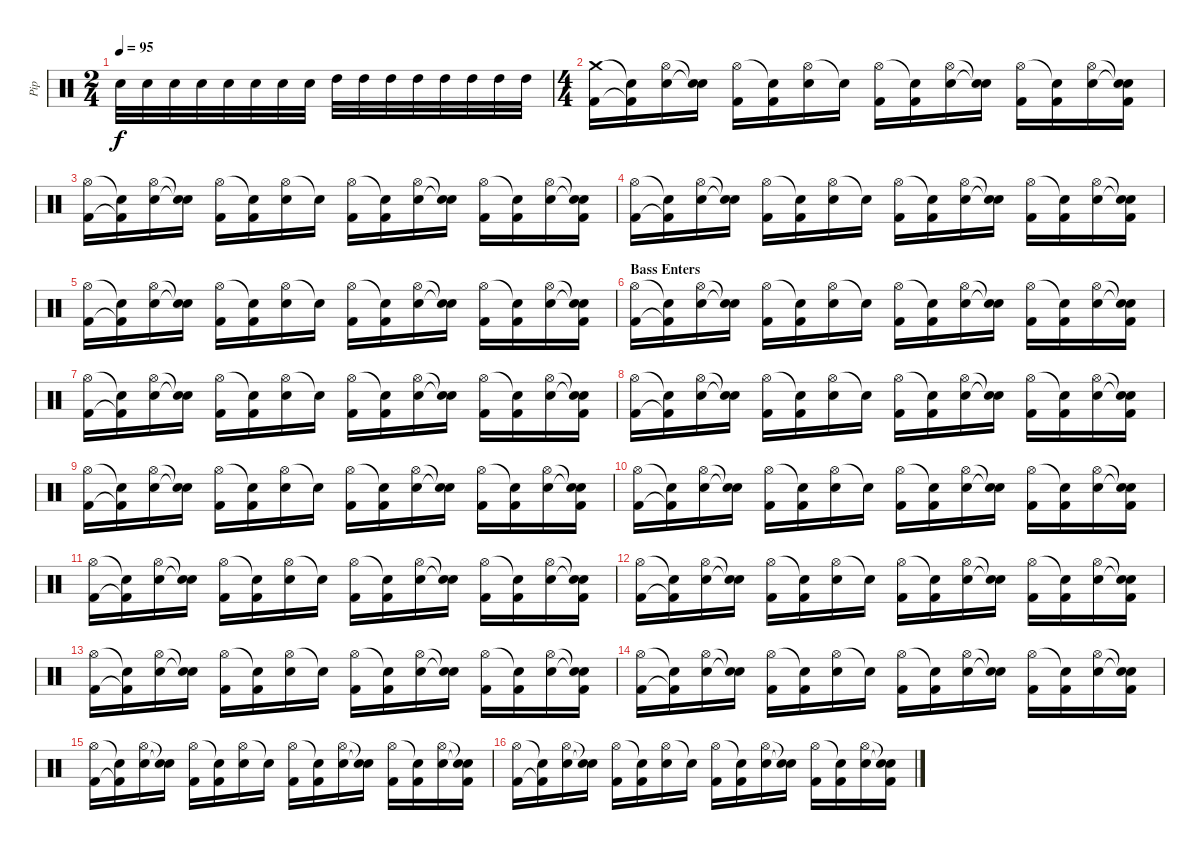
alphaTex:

\track ("Pip" "Pip") {instrument percussion}
\staff {score}
\articulation defaults
\ts (2 4)
\tempo 95
\clef neutral
\ks c "Electric Snare (hit)".32{dy f} "Electric Snare (hit)".32 "Electric Snare (hit)".32 "Electric Snare (hit)".32 "Electric Snare (hit)".32 "Electric Snare (hit)".32 "Electric Snare (hit)".32 "Electric Snare (hit)".32 "High Tom (hit)".32 "High Tom (hit)".32 "High Tom (hit)".32 "High Tom (hit)".32 "High Tom (hit)".32 "High Tom (hit)".32 "High Tom (hit)".32 "High Tom (hit)".32
|
\ts (4 4)
("Crash medium (hit)" "Kick (hit) 2").16 ("Snare (hit)"{t} "Kick (hit) 2"{t}).16 ("Hi-Hat (open)" "Electric Snare (hit)").16 ("Snare (hit)"{t} "Snare (hit)"{t}).16 ("Hi-Hat (open)" "Kick (hit) 2").16 ("Snare (hit)"{t} "Kick (hit) 2").16 ("Hi-Hat (open)" "Electric Snare (hit)").16 "Snare (hit)"{t}.16 ("Hi-Hat (open)" "Kick (hit) 2").16 ("Snare (hit)"{t} "Kick (hit) 2").16 ("Hi-Hat (open)" "Electric Snare (hit)").16 ("Snare (hit)"{t} "Snare (hit)"{t}).16 ("Hi-Hat (open)" "Kick (hit) 2").16 ("Snare (hit)"{t} "Kick (hit) 2").16 ("Hi-Hat (open)" "Electric Snare (hit)").16 ("Snare (hit)"{t} "Snare (hit)"{t} "Kick (hit) 2").16 |
("Hi-Hat (open)" "Kick (hit) 2").16 ("Snare (hit)"{t} "Kick (hit) 2"{t}).16 ("Hi-Hat (open)" "Electric Snare (hit)").16 ("Snare (hit)"{t} "Snare (hit)"{t}).16 ("Hi-Hat (open)" "Kick (hit) 2").16 ("Snare (hit)"{t} "Kick (hit) 2").16 ("Hi-Hat (open)" "Electric Snare (hit)").16 "Snare (hit)"{t}.16 ("Hi-Hat (open)" "Kick (hit) 2").16 ("Snare (hit)"{t} "Kick (hit) 2").16 ("Hi-Hat (open)" "Electric Snare (hit)").16 ("Snare (hit)"{t} "Snare (hit)"{t}).16 ("Hi-Hat (open)" "Kick (hit) 2").16 ("Snare (hit)"{t} "Kick (hit) 2").16 ("Hi-Hat (open)" "Electric Snare (hit)").16 ("Snare (hit)"{t} "Snare (hit)"{t} "Kick (hit) 2").16 |
("Hi-Hat (open)" "Kick (hit) 2").16 ("Snare (hit)"{t} "Kick (hit) 2"{t}).16 ("Hi-Hat (open)" "Electric Snare (hit)").16 ("Snare (hit)"{t} "Snare (hit)"{t}).16 ("Hi-Hat (open)" "Kick (hit) 2").16 ("Snare (hit)"{t} "Kick (hit) 2").16 ("Hi-Hat (open)" "Electric Snare (hit)").16 "Snare (hit)"{t}.16 ("Hi-Hat (open)" "Kick (hit) 2").16 ("Snare (hit)"{t} "Kick (hit) 2").16 ("Hi-Hat (open)" "Electric Snare (hit)").16 ("Snare (hit)"{t} "Snare (hit)"{t}).16 ("Hi-Hat (open)" "Kick (hit) 2").16 ("Snare (hit)"{t} "Kick (hit) 2").16 ("Hi-Hat (open)" "Electric Snare (hit)").16 ("Snare (hit)"{t} "Snare (hit)"{t} "Kick (hit) 2").16 |
("Hi-Hat (open)" "Kick (hit) 2").16 ("Snare (hit)"{t} "Kick (hit) 2"{t}).16 ("Hi-Hat (open)" "Electric Snare (hit)").16 ("Snare (hit)"{t} "Snare (hit)"{t}).16 ("Hi-Hat (open)" "Kick (hit) 2").16 ("Snare (hit)"{t} "Kick (hit) 2").16 ("Hi-Hat (open)" "Electric Snare (hit)").16 "Snare (hit)"{t}.16 ("Hi-Hat (open)" "Kick (hit) 2").16 ("Snare (hit)"{t} "Kick (hit) 2").16 ("Hi-Hat (open)" "Electric Snare (hit)").16 ("Snare (hit)"{t} "Snare (hit)"{t}).16 ("Hi-Hat (open)" "Kick (hit) 2").16 ("Snare (hit)"{t} "Kick (hit) 2").16 ("Hi-Hat (open)" "Electric Snare (hit)").16 ("Snare (hit)"{t} "Snare (hit)"{t} "Kick (hit) 2").16 |
\section ("" "Bass Enters")
("Hi-Hat (open)" "Kick (hit) 2").16 ("Snare (hit)"{t} "Kick (hit) 2"{t}).16 ("Hi-Hat (open)" "Electric Snare (hit)").16 ("Snare (hit)"{t} "Snare (hit)"{t}).16 ("Hi-Hat (open)" "Kick (hit) 2").16 ("Snare (hit)"{t} "Kick (hit) 2").16 ("Hi-Hat (open)" "Electric Snare (hit)").16 "Snare (hit)"{t}.16 ("Hi-Hat (open)" "Kick (hit) 2").16 ("Snare (hit)"{t} "Kick (hit) 2").16 ("Hi-Hat (open)" "Electric Snare (hit)").16 ("Snare (hit)"{t} "Snare (hit)"{t}).16 ("Hi-Hat (open)" "Kick (hit) 2").16 ("Snare (hit)"{t} "Kick (hit) 2").16 ("Hi-Hat (open)" "Electric Snare (hit)").16 ("Snare (hit)"{t} "Snare (hit)"{t} "Kick (hit) 2").16 |
("Hi-Hat (open)" "Kick (hit) 2").16 ("Snare (hit)"{t} "Kick (hit) 2"{t}).16 ("Hi-Hat (open)" "Electric Snare (hit)").16 ("Snare (hit)"{t} "Snare (hit)"{t}).16 ("Hi-Hat (open)" "Kick (hit) 2").16 ("Snare (hit)"{t} "Kick (hit) 2").16 ("Hi-Hat (open)" "Electric Snare (hit)").16 "Snare (hit)"{t}.16 ("Hi-Hat (open)" "Kick (hit) 2").16 ("Snare (hit)"{t} "Kick (hit) 2").16 ("Hi-Hat (open)" "Electric Snare (hit)").16 ("Snare (hit)"{t} "Snare (hit)"{t}).16 ("Hi-Hat (open)" "Kick (hit) 2").16 ("Snare (hit)"{t} "Kick (hit) 2").16 ("Hi-Hat (open)" "Electric Snare (hit)").16 ("Snare (hit)"{t} "Snare (hit)"{t} "Kick (hit) 2").16 |
("Hi-Hat (open)" "Kick (hit) 2").16 ("Snare (hit)"{t} "Kick (hit) 2"{t}).16 ("Hi-Hat (open)" "Electric Snare (hit)").16 ("Snare (hit)"{t} "Snare (hit)"{t}).16 ("Hi-Hat (open)" "Kick (hit) 2").16 ("Snare (hit)"{t} "Kick (hit) 2").16 ("Hi-Hat (open)" "Electric Snare (hit)").16 "Snare (hit)"{t}.16 ("Hi-Hat (open)" "Kick (hit) 2").16 ("Snare (hit)"{t} "Kick (hit) 2").16 ("Hi-Hat (open)" "Electric Snare (hit)").16 ("Snare (hit)"{t} "Snare (hit)"{t}).16 ("Hi-Hat (open)" "Kick (hit) 2").16 ("Snare (hit)"{t} "Kick (hit) 2").16 ("Hi-Hat (open)" "Electric Snare (hit)").16 ("Snare (hit)"{t} "Snare (hit)"{t} "Kick (hit) 2").16 |
("Hi-Hat (open)" "Kick (hit) 2").16 ("Snare (hit)"{t} "Kick (hit) 2"{t}).16 ("Hi-Hat (open)" "Electric Snare (hit)").16 ("Snare (hit)"{t} "Snare (hit)"{t}).16 ("Hi-Hat (open)" "Kick (hit) 2").16 ("Snare (hit)"{t} "Kick (hit) 2").16 ("Hi-Hat (open)" "Electric Snare (hit)").16 "Snare (hit)"{t}.16 ("Hi-Hat (open)" "Kick (hit) 2").16 ("Snare (hit)"{t} "Kick (hit) 2").16 ("Hi-Hat (open)" "Electric Snare (hit)").16 ("Snare (hit)"{t} "Snare (hit)"{t}).16 ("Hi-Hat (open)" "Kick (hit) 2").16 ("Snare (hit)"{t} "Kick (hit) 2").16 ("Hi-Hat (open)" "Electric Snare (hit)").16 ("Snare (hit)"{t} "Snare (hit)"{t} "Kick (hit) 2").16 |
("Hi-Hat (open)" "Kick (hit) 2").16 ("Snare (hit)"{t} "Kick (hit) 2"{t}).16 ("Hi-Hat (open)" "Electric Snare (hit)").16 ("Snare (hit)"{t} "Snare (hit)"{t}).16 ("Hi-Hat (open)" "Kick (hit) 2").16 ("Snare (hit)"{t} "Kick (hit) 2").16 ("Hi-Hat (open)" "Electric Snare (hit)").16 "Snare (hit)"{t}.16 ("Hi-Hat (open)" "Kick (hit) 2").16 ("Snare (hit)"{t} "Kick (hit) 2").16 ("Hi-Hat (open)" "Electric Snare (hit)").16 ("Snare (hit)"{t} "Snare (hit)"{t}).16 ("Hi-Hat (open)" "Kick (hit) 2").16 ("Snare (hit)"{t} "Kick (hit) 2").16 ("Hi-Hat (open)" "Electric Snare (hit)").16 ("Snare (hit)"{t} "Snare (hit)"{t} "Kick (hit) 2").16 |
("Hi-Hat (open)" "Kick (hit) 2").16 ("Snare (hit)"{t} "Kick (hit) 2"{t}).16 ("Hi-Hat (open)" "Electric Snare (hit)").16 ("Snare (hit)"{t} "Snare (hit)"{t}).16 ("Hi-Hat (open)" "Kick (hit) 2").16 ("Snare (hit)"{t} "Kick (hit) 2").16 ("Hi-Hat (open)" "Electric Snare (hit)").16 "Snare (hit)"{t}.16 ("Hi-Hat (open)" "Kick (hit) 2").16 ("Snare (hit)"{t} "Kick (hit) 2").16 ("Hi-Hat (open)" "Electric Snare (hit)").16 ("Snare (hit)"{t} "Snare (hit)"{t}).16 ("Hi-Hat (open)" "Kick (hit) 2").16 ("Snare (hit)"{t} "Kick (hit) 2").16 ("Hi-Hat (open)" "Electric Snare (hit)").16 ("Snare (hit)"{t} "Snare (hit)"{t} "Kick (hit) 2").16 |
("Hi-Hat (open)" "Kick (hit) 2").16 ("Snare (hit)"{t} "Kick (hit) 2"{t}).16 ("Hi-Hat (open)" "Electric Snare (hit)").16 ("Snare (hit)"{t} "Snare (hit)"{t}).16 ("Hi-Hat (open)" "Kick (hit) 2").16 ("Snare (hit)"{t} "Kick (hit) 2").16 ("Hi-Hat (open)" "Electric Snare (hit)").16 "Snare (hit)"{t}.16 ("Hi-Hat (open)" "Kick (hit) 2").16 ("Snare (hit)"{t} "Kick (hit) 2").16 ("Hi-Hat (open)" "Electric Snare (hit)").16 ("Snare (hit)"{t} "Snare (hit)"{t}).16 ("Hi-Hat (open)" "Kick (hit) 2").16 ("Snare (hit)"{t} "Kick (hit) 2").16 ("Hi-Hat (open)" "Electric Snare (hit)").16 ("Snare (hit)"{t} "Snare (hit)"{t} "Kick (hit) 2").16 |
("Hi-Hat (open)" "Kick (hit) 2").16 ("Snare (hit)"{t} "Kick (hit) 2"{t}).16 ("Hi-Hat (open)" "Electric Snare (hit)").16 ("Snare (hit)"{t} "Snare (hit)"{t}).16 ("Hi-Hat (open)" "Kick (hit) 2").16 ("Snare (hit)"{t} "Kick (hit) 2").16 ("Hi-Hat (open)" "Electric Snare (hit)").16 "Snare (hit)"{t}.16 ("Hi-Hat (open)" "Kick (hit) 2").16 ("Snare (hit)"{t} "Kick (hit) 2").16 ("Hi-Hat (open)" "Electric Snare (hit)").16 ("Snare (hit)"{t} "Snare (hit)"{t}).16 ("Hi-Hat (open)" "Kick (hit) 2").16 ("Snare (hit)"{t} "Kick (hit) 2").16 ("Hi-Hat (open)" "Electric Snare (hit)").16 ("Snare (hit)"{t} "Snare (hit)"{t} "Kick (hit) 2").16 |
("Hi-Hat (open)" "Kick (hit) 2").16 ("Snare (hit)"{t} "Kick (hit) 2"{t}).16 ("Hi-Hat (open)" "Electric Snare (hit)").16 ("Snare (hit)"{t} "Snare (hit)"{t}).16 ("Hi-Hat (open)" "Kick (hit) 2").16 ("Snare (hit)"{t} "Kick (hit) 2").16 ("Hi-Hat (open)" "Electric Snare (hit)").16 "Snare (hit)"{t}.16 ("Hi-Hat (open)" "Kick (hit) 2").16 ("Snare (hit)"{t} "Kick (hit) 2").16 ("Hi-Hat (open)" "Electric Snare (hit)").16 ("Snare (hit)"{t} "Snare (hit)"{t}).16 ("Hi-Hat (open)" "Kick (hit) 2").16 ("Snare (hit)"{t} "Kick (hit) 2").16 ("Hi-Hat (open)" "Electric Snare (hit)").16 ("Snare (hit)"{t} "Snare (hit)"{t} "Kick (hit) 2").16 |
("Hi-Hat (open)" "Kick (hit) 2").16 ("Snare (hit)"{t} "Kick (hit) 2"{t}).16 ("Hi-Hat (open)" "Electric Snare (hit)").16 ("Snare (hit)"{t} "Snare (hit)"{t}).16 ("Hi-Hat (open)" "Kick (hit) 2").16 ("Snare (hit)"{t} "Kick (hit) 2").16 ("Hi-Hat (open)" "Electric Snare (hit)").16 "Snare (hit)"{t}.16 ("Hi-Hat (open)" "Kick (hit) 2").16 ("Snare (hit)"{t} "Kick (hit) 2").16 ("Hi-Hat (open)" "Electric Snare (hit)").16 ("Snare (hit)"{t} "Snare (hit)"{t}).16 ("Hi-Hat (open)" "Kick (hit) 2").16 ("Snare (hit)"{t} "Kick (hit) 2").16 ("Hi-Hat (open)" "Electric Snare (hit)").16 ("Snare (hit)"{t} "Snare (hit)"{t} "Kick (hit) 2").16 |
("Hi-Hat (open)" "Kick (hit) 2").16 ("Snare (hit)"{t} "Kick (hit) 2"{t}).16 ("Hi-Hat (open)" "Electric Snare (hit)").16 ("Snare (hit)"{t} "Snare (hit)"{t}).16 ("Hi-Hat (open)" "Kick (hit) 2").16 ("Snare (hit)"{t} "Kick (hit) 2").16 ("Hi-Hat (open)" "Electric Snare (hit)").16 "Snare (hit)"{t}.16 ("Hi-Hat (open)" "Kick (hit) 2").16 ("Snare (hit)"{t} "Kick (hit) 2").16 ("Hi-Hat (open)" "Electric Snare (hit)").16 ("Snare (hit)"{t} "Snare (hit)"{t}).16 ("Hi-Hat (open)" "Kick (hit) 2").16 ("Snare (hit)"{t} "Kick (hit) 2").16 ("Hi-Hat (open)" "Electric Snare (hit)").16 ("Snare (hit)"{t} "Snare (hit)"{t} "Kick (hit) 2").16
